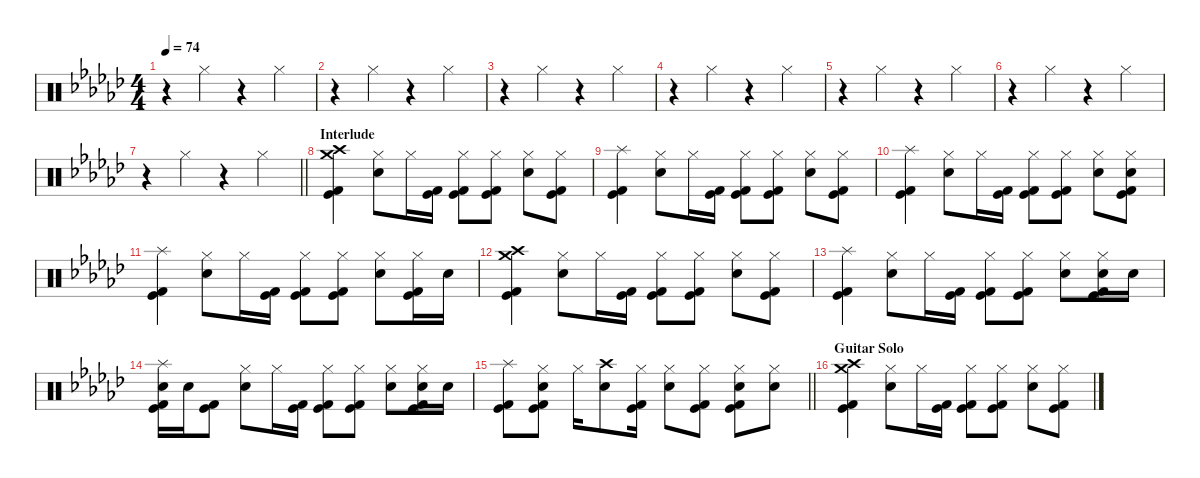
\defaultSystemsLayout 4
\hideDynamics
\bracketExtendMode nobrackets
\singleTrackTrackNamePolicy hidden
\multiTrackTrackNamePolicy hidden
\firstSystemTrackNameMode fullname
\firstSystemTrackNameOrientation horizontal
\otherSystemsTrackNameOrientation horizontal
\track ("Drums, Ulrich" "drm.") {defaultSystemsLayout 4 instrument percussion}
\staff {score}
\articulation defaults
\ts (4 4)
\tempo 74
\clef neutral
\ks ebminor
r.4{dy f beam Down} "Hi-Hat (closed)"{acc forcenatural}.4{beam Down} r.4{beam Down} "Hi-Hat (closed)"{acc forcenatural}.4{beam Down} |
r.4{beam Down} "Hi-Hat (closed)"{acc forcenatural}.4{beam Down} r.4{beam Down} "Hi-Hat (closed)"{acc forcenatural}.4{beam Down} |
r.4{beam Down} "Hi-Hat (closed)"{acc forcenatural}.4{beam Down} r.4{beam Down} "Hi-Hat (closed)"{acc forcenatural}.4{beam Down} |
r.4{beam Down} "Hi-Hat (closed)"{acc forcenatural}.4{beam Down} r.4{beam Down} "Hi-Hat (closed)"{acc forcenatural}.4{beam Down} |
r.4{beam Down} "Hi-Hat (closed)"{acc forcenatural}.4{beam Down} r.4{beam Down} "Hi-Hat (closed)"{acc forcenatural}.4{beam Down} |
r.4{beam Down} "Hi-Hat (closed)"{acc forcenatural}.4{beam Down} r.4{beam Down} "Hi-Hat (closed)"{acc forcenatural}.4{beam Down} |
\barLineRight lightlight
r.4{beam Down} "Hi-Hat (closed)"{acc forcenatural}.4{beam Down} r.4{beam Down} "Hi-Hat (closed)"{acc forcenatural}.4{beam Down} |
\section ("" "Interlude")
("Crash medium (hit)"{acc forcenatural} "Crash high (hit)"{acc forcenatural} "Kick (hit) 2"{acc forcenatural} "Kick (hit)"{acc forcenatural}).4{beam Down} ("Hi-Hat (closed)"{acc forcenatural} "Snare (hit) 2"{acc forcenatural}).8{beam Down} "Hi-Hat (closed)"{acc forcenatural}.16{beam Down} ("Kick (hit) 2"{acc forcenatural} "Kick (hit)"{acc forcenatural}).16{beam Down} ("Hi-Hat (closed)"{acc forcenatural} "Kick (hit) 2"{acc forcenatural} "Kick (hit)"{acc forcenatural}).8{beam Down} ("Hi-Hat (closed)"{acc forcenatural} "Kick (hit)"{acc forcenatural} "Kick (hit) 2"{acc forcenatural}).8{beam Down} ("Hi-Hat (closed)"{acc forcenatural} "Snare (hit) 2"{acc forcenatural}).8{beam Down} ("Hi-Hat (closed)"{acc forcenatural} "Kick (hit) 2"{acc forcenatural} "Kick (hit)"{acc forcenatural}).8{beam Down} |
("Splash (hit)"{acc forcenatural} "Kick (hit) 2"{acc forcenatural} "Kick (hit)"{acc forcenatural}).4{beam Down} ("Hi-Hat (closed)"{acc forcenatural} "Snare (hit) 2"{acc forcenatural}).8{beam Down} "Hi-Hat (closed)"{acc forcenatural}.16{beam Down} ("Kick (hit) 2"{acc forcenatural} "Kick (hit)"{acc forcenatural}).16{beam Down} ("Hi-Hat (closed)"{acc forcenatural} "Kick (hit) 2"{acc forcenatural} "Kick (hit)"{acc forcenatural}).8{beam Down} ("Hi-Hat (closed)"{acc forcenatural} "Kick (hit)"{acc forcenatural} "Kick (hit) 2"{acc forcenatural}).8{beam Down} ("Hi-Hat (closed)"{acc forcenatural} "Snare (hit) 2"{acc forcenatural}).8{beam Down} ("Hi-Hat (closed)"{acc forcenatural} "Kick (hit) 2"{acc forcenatural} "Kick (hit)"{acc forcenatural}).8{beam Down} |
("Splash (hit)"{acc forcenatural} "Kick (hit) 2"{acc forcenatural} "Kick (hit)"{acc forcenatural}).4{beam Down} ("Hi-Hat (closed)"{acc forcenatural} "Snare (hit) 2"{acc forcenatural}).8{beam Down} "Hi-Hat (closed)"{acc forcenatural}.16{beam Down} ("Kick (hit) 2"{acc forcenatural} "Kick (hit)"{acc forcenatural}).16{beam Down} ("Hi-Hat (closed)"{acc forcenatural} "Kick (hit) 2"{acc forcenatural} "Kick (hit)"{acc forcenatural}).8{beam Down} ("Hi-Hat (closed)"{acc forcenatural} "Kick (hit)"{acc forcenatural} "Kick (hit) 2"{acc forcenatural}).8{beam Down} ("Hi-Hat (closed)"{acc forcenatural} "Snare (hit) 2"{acc forcenatural}).8{beam Down} ("Hi-Hat (closed)"{acc forcenatural} "Snare (hit) 2"{acc forcenatural} "Kick (hit) 2"{acc forcenatural} "Kick (hit)"{acc forcenatural}).8{beam Down} |
("Splash (hit)"{acc forcenatural} "Kick (hit) 2"{acc forcenatural} "Kick (hit)"{acc forcenatural}).4{beam Down} ("Hi-Hat (closed)"{acc forcenatural} "Snare (hit) 2"{acc forcenatural}).8{beam Down} "Hi-Hat (closed)"{acc forcenatural}.16{beam Down} ("Kick (hit) 2"{acc forcenatural} "Kick (hit)"{acc forcenatural}).16{beam Down} ("Hi-Hat (closed)"{acc forcenatural} "Kick (hit) 2"{acc forcenatural} "Kick (hit)"{acc forcenatural}).8{beam Down} ("Hi-Hat (closed)"{acc forcenatural} "Kick (hit)"{acc forcenatural} "Kick (hit) 2"{acc forcenatural}).8{beam Down} ("Hi-Hat (closed)"{acc forcenatural} "Snare (hit) 2"{acc forcenatural}).8{beam Down} ("Hi-Hat (closed)"{acc forcenatural} "Kick (hit) 2"{acc forcenatural} "Kick (hit)"{acc forcenatural}).16{beam Down} "Snare (hit) 2"{acc forcenatural}.16{beam Down} |
("Crash medium (hit)"{acc forcenatural} "Crash high (hit)"{acc forcenatural} "Kick (hit) 2"{acc forcenatural} "Kick (hit)"{acc forcenatural}).4{beam Down} ("Hi-Hat (closed)"{acc forcenatural} "Snare (hit) 2"{acc forcenatural}).8{beam Down} "Hi-Hat (closed)"{acc forcenatural}.16{beam Down} ("Kick (hit) 2"{acc forcenatural} "Kick (hit)"{acc forcenatural}).16{beam Down} ("Hi-Hat (closed)"{acc forcenatural} "Kick (hit) 2"{acc forcenatural} "Kick (hit)"{acc forcenatural}).8{beam Down} ("Hi-Hat (closed)"{acc forcenatural} "Kick (hit)"{acc forcenatural} "Kick (hit) 2"{acc forcenatural}).8{beam Down} ("Hi-Hat (closed)"{acc forcenatural} "Snare (hit) 2"{acc forcenatural}).8{beam Down} ("Hi-Hat (closed)"{acc forcenatural} "Kick (hit) 2"{acc forcenatural} "Kick (hit)"{acc forcenatural}).8{beam Down} |
("Splash (hit)"{acc forcenatural} "Kick (hit) 2"{acc forcenatural} "Kick (hit)"{acc forcenatural}).4{beam Down} ("Hi-Hat (closed)"{acc forcenatural} "Snare (hit) 2"{acc forcenatural}).8{beam Down} "Hi-Hat (closed)"{acc forcenatural}.16{beam Down} ("Kick (hit) 2"{acc forcenatural} "Kick (hit)"{acc forcenatural}).16{beam Down} ("Hi-Hat (closed)"{acc forcenatural} "Kick (hit) 2"{acc forcenatural} "Kick (hit)"{acc forcenatural}).8{beam Down} ("Hi-Hat (closed)"{acc forcenatural} "Kick (hit)"{acc forcenatural} "Kick (hit) 2"{acc forcenatural}).8{beam Down} ("Hi-Hat (closed)"{acc forcenatural} "Snare (hit) 2"{acc forcenatural}).8{beam Down} ("Hi-Hat (closed)"{acc forcenatural} "Snare (hit) 2"{acc forcenatural} "Kick (hit) 2"{acc forcenatural} "Kick (hit)"{acc forcenatural}).16{beam Down} "Snare (hit) 2"{acc forcenatural}.16{beam Down} |
("Splash (hit)"{acc forcenatural} "Snare (hit) 2"{acc forcenatural} "Kick (hit) 2"{acc forcenatural} "Kick (hit)"{acc forcenatural}).16{beam Down} "Snare (hit) 2"{acc forcenatural}.16{beam Down} ("Kick (hit) 2"{acc forcenatural} "Kick (hit)"{acc forcenatural}).8{beam Down} ("Hi-Hat (closed)"{acc forcenatural} "Snare (hit) 2"{acc forcenatural}).8{beam Down} "Hi-Hat (closed)"{acc forcenatural}.16{beam Down} ("Kick (hit) 2"{acc forcenatural} "Kick (hit)"{acc forcenatural}).16{beam Down} ("Hi-Hat (closed)"{acc forcenatural} "Kick (hit) 2"{acc forcenatural} "Kick (hit)"{acc forcenatural}).8{beam Down} ("Hi-Hat (closed)"{acc forcenatural} "Kick (hit)"{acc forcenatural} "Kick (hit) 2"{acc forcenatural}).8{beam Down} ("Hi-Hat (closed)"{acc forcenatural} "Snare (hit) 2"{acc forcenatural}).8{beam Down} ("Hi-Hat (closed)"{acc forcenatural} "Snare (hit) 2"{acc forcenatural} "Kick (hit) 2"{acc forcenatural} "Kick (hit)"{acc forcenatural}).16{beam Down} "Snare (hit) 2"{acc forcenatural}.16{beam Down} |
\barLineRight lightlight
("Splash (hit)"{acc forcenatural} "Kick (hit) 2"{acc forcenatural} "Kick (hit)"{acc forcenatural}).8{beam Down} ("Hi-Hat (closed)"{acc forcenatural} "Snare (hit) 2"{acc forcenatural} "Kick (hit) 2"{acc forcenatural} "Kick (hit)"{acc forcenatural}).8{beam Down} "Hi-Hat (closed)"{acc forcenatural}.16{beam Down} ("Crash high (hit)"{acc forcenatural} "Snare (hit) 2"{acc forcenatural}).8{beam Down} ("Hi-Hat (closed)"{acc forcenatural} "Kick (hit)"{acc forcenatural} "Kick (hit) 2"{acc forcenatural}).16{beam Down} ("Hi-Hat (closed)"{acc forcenatural} "Snare (hit) 2"{acc forcenatural}).8{beam Down} ("Hi-Hat (closed)"{acc forcenatural} "Kick (hit) 2"{acc forcenatural} "Kick (hit)"{acc forcenatural}).8{beam Down} ("Hi-Hat (closed)"{acc forcenatural} "Snare (hit) 2"{acc forcenatural} "Kick (hit)"{acc forcenatural} "Kick (hit) 2"{acc forcenatural}).8{beam Down} ("Hi-Hat (closed)"{acc forcenatural} "Snare (hit) 2"{acc forcenatural}).8{beam Down} |
\section ("" "Guitar Solo")
("Crash medium (hit)"{acc forcenatural} "Crash high (hit)"{acc forcenatural} "Kick (hit) 2"{acc forcenatural} "Kick (hit)"{acc forcenatural}).4{beam Down} ("Hi-Hat (closed)"{acc forcenatural} "Snare (hit) 2"{acc forcenatural}).8{beam Down} "Hi-Hat (closed)"{acc forcenatural}.16{beam Down} ("Kick (hit) 2"{acc forcenatural} "Kick (hit)"{acc forcenatural}).16{beam Down} ("Hi-Hat (closed)"{acc forcenatural} "Kick (hit) 2"{acc forcenatural} "Kick (hit)"{acc forcenatural}).8{beam Down} ("Hi-Hat (closed)"{acc forcenatural} "Kick (hit)"{acc forcenatural} "Kick (hit) 2"{acc forcenatural}).8{beam Down} ("Hi-Hat (closed)"{acc forcenatural} "Snare (hit) 2"{acc forcenatural}).8{beam Down} ("Hi-Hat (closed)"{acc forcenatural} "Kick (hit) 2"{acc forcenatural} "Kick (hit)"{acc forcenatural}).8{beam Down}
